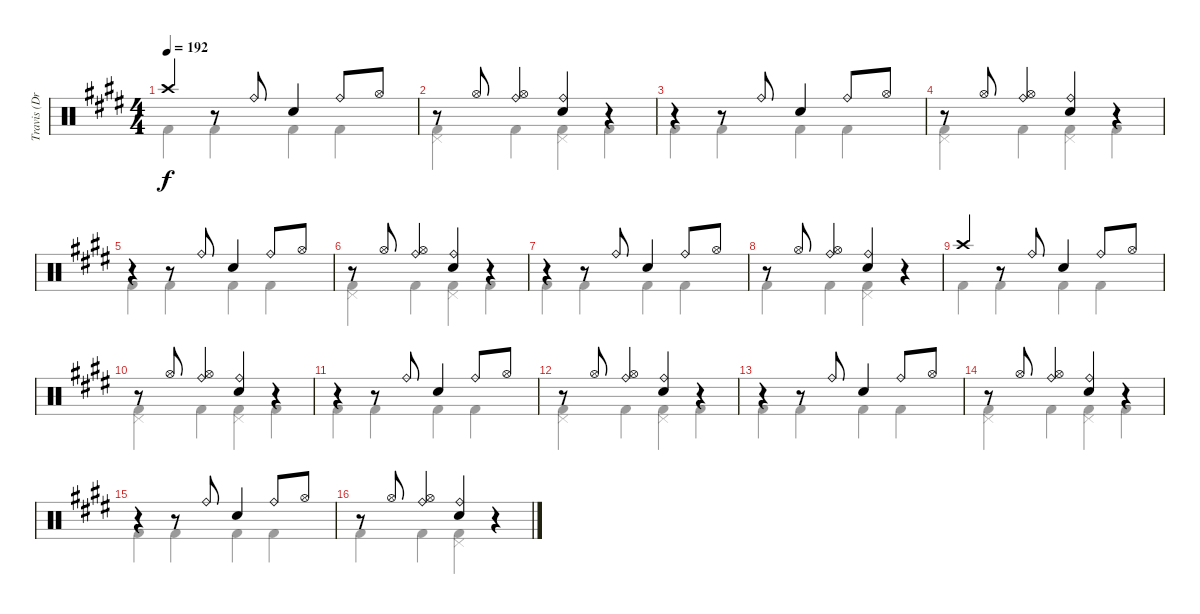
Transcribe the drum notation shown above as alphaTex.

\track ("Travis (Drums)" "Travis (Dr") {instrument percussion}
\staff {score}
\articulation defaults
\voice
\ts (4 4)
\tempo 192
\clef neutral
\ks e "Crash high (hit)".4{dy f}
r.8 "Ride (bell)".8 "Electric Snare (hit)".4 "Ride (bell)".8 "Hi-Hat (open)".8 |
r.8 "Hi-Hat (open)".8 ("Ride (bell)" "Hi-Hat (open)").4 ("Ride (bell)" "Electric Snare (hit)").4 r.4 |
r.4 r.8 "Ride (bell)".8 "Electric Snare (hit)".4 "Ride (bell)".8 "Hi-Hat (open)".8 |
r.8 "Hi-Hat (open)".8 ("Ride (bell)" "Hi-Hat (open)").4 ("Ride (bell)" "Electric Snare (hit)").4 r.4 |
r.4 r.8 "Ride (bell)".8 "Electric Snare (hit)".4 "Ride (bell)".8 "Hi-Hat (open)".8 |
r.8 "Hi-Hat (open)".8 ("Ride (bell)" "Hi-Hat (open)").4 ("Ride (bell)" "Electric Snare (hit)").4 r.4 |
r.4 r.8 "Ride (bell)".8 "Electric Snare (hit)".4 "Ride (bell)".8 "Hi-Hat (open)".8 |
r.8 "Hi-Hat (open)".8 ("Ride (bell)" "Hi-Hat (open)").4 ("Ride (bell)" "Electric Snare (hit)").4 r.4 |
"Crash high (hit)".4 r.8 "Ride (bell)".8 "Electric Snare (hit)".4 "Ride (bell)".8 "Hi-Hat (open)".8 |
r.8 "Hi-Hat (open)".8 ("Ride (bell)" "Hi-Hat (open)").4 ("Ride (bell)" "Electric Snare (hit)").4 r.4 |
r.4 r.8 "Ride (bell)".8 "Electric Snare (hit)".4 "Ride (bell)".8 "Hi-Hat (open)".8 |
r.8 "Hi-Hat (open)".8 ("Ride (bell)" "Hi-Hat (open)").4 ("Ride (bell)" "Electric Snare (hit)").4 r.4 |
r.4 r.8 "Ride (bell)".8 "Electric Snare (hit)".4 "Ride (bell)".8 "Hi-Hat (open)".8 |
r.8 "Hi-Hat (open)".8 ("Ride (bell)" "Hi-Hat (open)").4 ("Ride (bell)" "Electric Snare (hit)").4 r.4 |
r.4 r.8 "Ride (bell)".8 "Electric Snare (hit)".4 "Ride (bell)".8 "Hi-Hat (open)".8 |
r.8 "Hi-Hat (open)".8 ("Ride (bell)" "Hi-Hat (open)").4 ("Ride (bell)" "Electric Snare (hit)").4 r.4
\voice
\clef neutral
\ottava regular
\simile none
\ks e "Kick (hit) 2".4{dy f} "Kick (hit) 2".4 "Kick (hit) 2".4 "Kick (hit) 2".4
|
("Kick (hit) 2" "Pedal Hi-Hat (hit)").4 "Kick (hit) 2".4 ("Kick (hit) 2" "Pedal Hi-Hat (hit)").4 "Kick (hit) 2".4 |
"Kick (hit) 2".4 "Kick (hit) 2".4 "Kick (hit) 2".4 "Kick (hit) 2".4 |
("Kick (hit) 2" "Pedal Hi-Hat (hit)").4 "Kick (hit) 2".4 ("Kick (hit) 2" "Pedal Hi-Hat (hit)").4 "Kick (hit) 2".4 |
"Kick (hit) 2".4 "Kick (hit) 2".4 "Kick (hit) 2".4 "Kick (hit) 2".4 |
("Kick (hit) 2" "Pedal Hi-Hat (hit)").4 "Kick (hit) 2".4 ("Kick (hit) 2" "Pedal Hi-Hat (hit)").4 "Kick (hit) 2".4 |
"Kick (hit) 2".4 "Kick (hit) 2".4 "Kick (hit) 2".4 "Kick (hit) 2".4 |
"Kick (hit) 2".4 "Kick (hit) 2".4 ("Kick (hit) 2" "Pedal Hi-Hat (hit)").4 r.4 |
"Kick (hit) 2".4 "Kick (hit) 2".4 "Kick (hit) 2".4 "Kick (hit) 2".4 |
("Kick (hit) 2" "Pedal Hi-Hat (hit)").4 "Kick (hit) 2".4 ("Kick (hit) 2" "Pedal Hi-Hat (hit)").4 "Kick (hit) 2".4 |
"Kick (hit) 2".4 "Kick (hit) 2".4 "Kick (hit) 2".4 "Kick (hit) 2".4 |
("Kick (hit) 2" "Pedal Hi-Hat (hit)").4 "Kick (hit) 2".4 ("Kick (hit) 2" "Pedal Hi-Hat (hit)").4 "Kick (hit) 2".4 |
"Kick (hit) 2".4 "Kick (hit) 2".4 "Kick (hit) 2".4 "Kick (hit) 2".4 |
("Kick (hit) 2" "Pedal Hi-Hat (hit)").4 "Kick (hit) 2".4 ("Kick (hit) 2" "Pedal Hi-Hat (hit)").4 "Kick (hit) 2".4 |
"Kick (hit) 2".4 "Kick (hit) 2".4 "Kick (hit) 2".4 "Kick (hit) 2".4 |
"Kick (hit) 2".4 "Kick (hit) 2".4 ("Kick (hit) 2" "Pedal Hi-Hat (hit)").4 r.4
